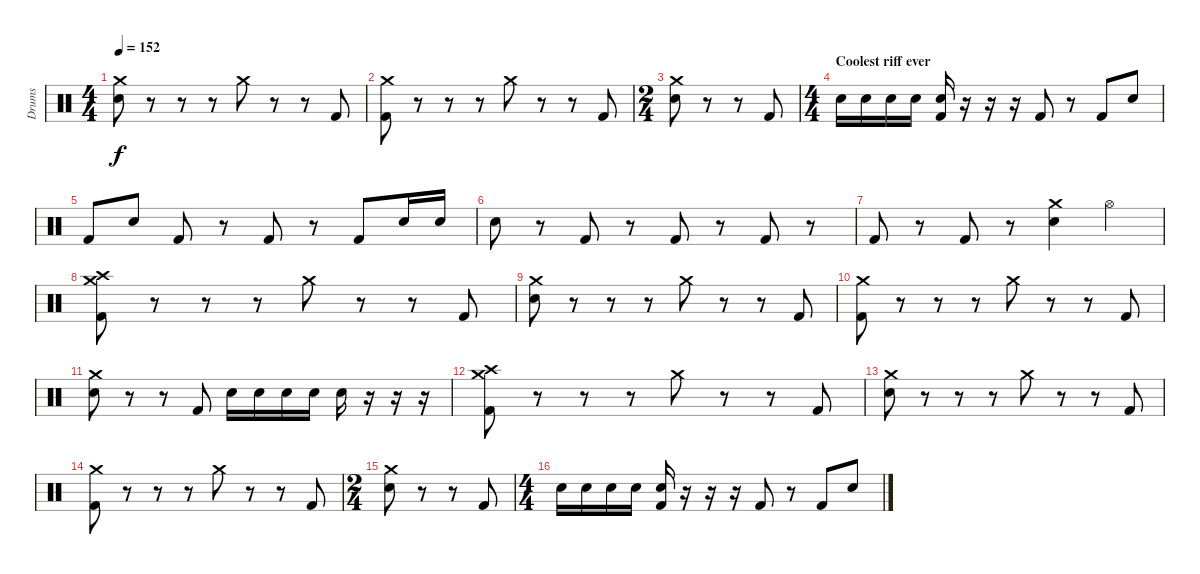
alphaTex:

\track ("Drums" "Drums") {instrument percussion}
\staff {score}
\articulation defaults
\ts (4 4)
\tempo 152
\clef neutral
\ks c
("Crash medium (hit)" "Electric Snare (hit)").8{dy f} r.8 r.8 r.8 "Crash medium (hit)".8 r.8 r.8 "Kick (hit) 2".8 |
("Crash medium (hit)" "Kick (hit) 2").8 r.8 r.8 r.8 "Crash medium (hit)".8 r.8 r.8 "Kick (hit) 2".8 |
\ts (2 4)
("Crash medium (hit)" "Electric Snare (hit)").8 r.8 r.8 "Kick (hit) 2".8 |
\ts (4 4)
\section ("" "Coolest riff ever")
"Electric Snare (hit)".16 "Electric Snare (hit)".16 "Electric Snare (hit)".16 "Electric Snare (hit)".16 ("Electric Snare (hit)" "Kick (hit) 2").16 r.16 r.16 r.16 "Kick (hit) 2".8 r.8 "Kick (hit) 2".8 "Electric Snare (hit)".8 |
"Kick (hit) 2".8 "Electric Snare (hit)".8 "Kick (hit) 2".8 r.8 "Kick (hit) 2".8 r.8 "Kick (hit) 2".8 "Electric Snare (hit)".16 "Electric Snare (hit)".16 |
"Electric Snare (hit)".8 r.8 "Kick (hit) 2".8 r.8 "Kick (hit) 2".8 r.8 "Kick (hit) 2".8 r.8 |
"Kick (hit) 2".8 r.8 "Kick (hit) 2".8 r.8 ("Crash medium (hit)" "Electric Snare (hit)").4 "Hi-Hat (open)".4 |
("Crash medium (hit)" "Crash high (hit)" "Kick (hit) 2").8 r.8 r.8 r.8 "Crash medium (hit)".8 r.8 r.8 "Kick (hit) 2".8 |
("Crash medium (hit)" "Electric Snare (hit)").8 r.8 r.8 r.8 "Crash medium (hit)".8 r.8 r.8 "Kick (hit) 2".8 |
("Crash medium (hit)" "Kick (hit) 2").8 r.8 r.8 r.8 "Crash medium (hit)".8 r.8 r.8 "Kick (hit) 2".8 |
("Crash medium (hit)" "Electric Snare (hit)").8 r.8 r.8 "Kick (hit) 2".8 "Electric Snare (hit)".16 "Electric Snare (hit)".16 "Electric Snare (hit)".16 "Electric Snare (hit)".16 "Electric Snare (hit)".16 r.16 r.16 r.16 |
("Crash medium (hit)" "Crash high (hit)" "Kick (hit) 2").8 r.8 r.8 r.8 "Crash medium (hit)".8 r.8 r.8 "Kick (hit) 2".8 |
("Crash medium (hit)" "Electric Snare (hit)").8 r.8 r.8 r.8 "Crash medium (hit)".8 r.8 r.8 "Kick (hit) 2".8 |
("Crash medium (hit)" "Kick (hit) 2").8 r.8 r.8 r.8 "Crash medium (hit)".8 r.8 r.8 "Kick (hit) 2".8 |
\ts (2 4)
("Crash medium (hit)" "Electric Snare (hit)").8 r.8 r.8 "Kick (hit) 2".8 |
\ts (4 4)
"Electric Snare (hit)".16 "Electric Snare (hit)".16 "Electric Snare (hit)".16 "Electric Snare (hit)".16 ("Electric Snare (hit)" "Kick (hit) 2").16 r.16 r.16 r.16 "Kick (hit) 2".8 r.8 "Kick (hit) 2".8 "Electric Snare (hit)".8
